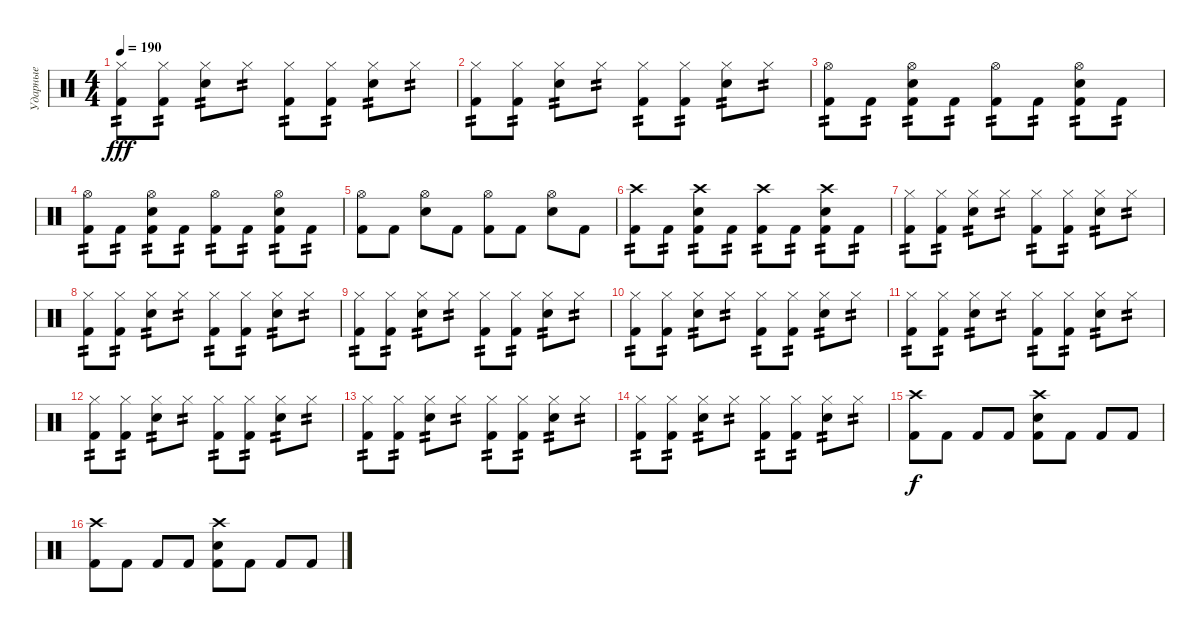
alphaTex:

\track ("Ударные" "Ударные") {instrument percussion}
\staff {score}
\articulation defaults
\ts (4 4)
\tempo 190
\clef neutral
\ks c
("Hi-Hat (closed)" "Kick (hit) 2").8{tp 2 dy fff} ("Hi-Hat (closed)" "Kick (hit) 2").8{tp 2} ("Hi-Hat (closed)" "Snare (hit) 2").8{tp 2} "Hi-Hat (closed)".8{tp 2} ("Hi-Hat (closed)" "Kick (hit) 2").8{tp 2} ("Hi-Hat (closed)" "Kick (hit) 2").8{tp 2} ("Hi-Hat (closed)" "Snare (hit) 2").8{tp 2} "Hi-Hat (closed)".8{tp 2} |
("Hi-Hat (closed)" "Kick (hit) 2").8{tp 2} ("Hi-Hat (closed)" "Kick (hit) 2").8{tp 2} ("Hi-Hat (closed)" "Snare (hit) 2").8{tp 2} "Hi-Hat (closed)".8{tp 2} ("Hi-Hat (closed)" "Kick (hit) 2").8{tp 2} ("Hi-Hat (closed)" "Kick (hit) 2").8{tp 2} ("Hi-Hat (closed)" "Snare (hit) 2").8{tp 2} "Hi-Hat (closed)".8{tp 2} |
("Hi-Hat (open)" "Kick (hit) 2").8{tp 2} "Kick (hit) 2".8{tp 2} ("Hi-Hat (open)" "Snare (hit) 2" "Kick (hit) 2").8{tp 2} "Kick (hit) 2".8{tp 2} ("Hi-Hat (open)" "Kick (hit) 2").8{tp 2} "Kick (hit) 2".8{tp 2} ("Hi-Hat (open)" "Snare (hit) 2" "Kick (hit) 2").8{tp 2} "Kick (hit) 2".8{tp 2} |
("Hi-Hat (open)" "Kick (hit) 2").8{tp 2} "Kick (hit) 2".8{tp 2} ("Hi-Hat (open)" "Snare (hit) 2" "Kick (hit) 2").8{tp 2} "Kick (hit) 2".8{tp 2} ("Hi-Hat (open)" "Kick (hit) 2").8{tp 2} "Kick (hit) 2".8{tp 2} ("Hi-Hat (open)" "Snare (hit) 2" "Kick (hit) 2").8{tp 2} "Kick (hit) 2".8{tp 2} |
("Hi-Hat (open)" "Kick (hit) 2").8 "Kick (hit) 2".8 ("Hi-Hat (open)" "Snare (hit) 2").8 "Kick (hit) 2".8 ("Hi-Hat (open)" "Kick (hit) 2").8 "Kick (hit) 2".8 ("Hi-Hat (open)" "Snare (hit) 2").8 "Kick (hit) 2".8 |
("Crash high (hit)" "Kick (hit) 2").8{tp 2} "Kick (hit) 2".8{tp 2} ("Crash high (hit)" "Snare (hit) 2" "Kick (hit) 2").8{tp 2} "Kick (hit) 2".8{tp 2} ("Crash high (hit)" "Kick (hit) 2").8{tp 2} "Kick (hit) 2".8{tp 2} ("Crash high (hit)" "Snare (hit) 2" "Kick (hit) 2").8{tp 2} "Kick (hit) 2".8{tp 2} |
("Hi-Hat (closed)" "Kick (hit) 2").8{tp 2} ("Hi-Hat (closed)" "Kick (hit) 2").8{tp 2} ("Hi-Hat (closed)" "Snare (hit) 2").8{tp 2} "Hi-Hat (closed)".8{tp 2} ("Hi-Hat (closed)" "Kick (hit) 2").8{tp 2} ("Hi-Hat (closed)" "Kick (hit) 2").8{tp 2} ("Hi-Hat (closed)" "Snare (hit) 2").8{tp 2} "Hi-Hat (closed)".8{tp 2} |
("Hi-Hat (closed)" "Kick (hit) 2").8{tp 2} ("Hi-Hat (closed)" "Kick (hit) 2").8{tp 2} ("Hi-Hat (closed)" "Snare (hit) 2").8{tp 2} "Hi-Hat (closed)".8{tp 2} ("Hi-Hat (closed)" "Kick (hit) 2").8{tp 2} ("Hi-Hat (closed)" "Kick (hit) 2").8{tp 2} ("Hi-Hat (closed)" "Snare (hit) 2").8{tp 2} "Hi-Hat (closed)".8{tp 2} |
("Hi-Hat (closed)" "Kick (hit) 2").8{tp 2} ("Hi-Hat (closed)" "Kick (hit) 2").8{tp 2} ("Hi-Hat (closed)" "Snare (hit) 2").8{tp 2} "Hi-Hat (closed)".8{tp 2} ("Hi-Hat (closed)" "Kick (hit) 2").8{tp 2} ("Hi-Hat (closed)" "Kick (hit) 2").8{tp 2} ("Hi-Hat (closed)" "Snare (hit) 2").8{tp 2} "Hi-Hat (closed)".8{tp 2} |
("Hi-Hat (closed)" "Kick (hit) 2").8{tp 2} ("Hi-Hat (closed)" "Kick (hit) 2").8{tp 2} ("Hi-Hat (closed)" "Snare (hit) 2").8{tp 2} "Hi-Hat (closed)".8{tp 2} ("Hi-Hat (closed)" "Kick (hit) 2").8{tp 2} ("Hi-Hat (closed)" "Kick (hit) 2").8{tp 2} ("Hi-Hat (closed)" "Snare (hit) 2").8{tp 2} "Hi-Hat (closed)".8{tp 2} |
("Hi-Hat (closed)" "Kick (hit) 2").8{tp 2} ("Hi-Hat (closed)" "Kick (hit) 2").8{tp 2} ("Hi-Hat (closed)" "Snare (hit) 2").8{tp 2} "Hi-Hat (closed)".8{tp 2} ("Hi-Hat (closed)" "Kick (hit) 2").8{tp 2} ("Hi-Hat (closed)" "Kick (hit) 2").8{tp 2} ("Hi-Hat (closed)" "Snare (hit) 2").8{tp 2} "Hi-Hat (closed)".8{tp 2} |
("Hi-Hat (closed)" "Kick (hit) 2").8{tp 2} ("Hi-Hat (closed)" "Kick (hit) 2").8{tp 2} ("Hi-Hat (closed)" "Snare (hit) 2").8{tp 2} "Hi-Hat (closed)".8{tp 2} ("Hi-Hat (closed)" "Kick (hit) 2").8{tp 2} ("Hi-Hat (closed)" "Kick (hit) 2").8{tp 2} ("Hi-Hat (closed)" "Snare (hit) 2").8{tp 2} "Hi-Hat (closed)".8{tp 2} |
("Hi-Hat (closed)" "Kick (hit) 2").8{tp 2} ("Hi-Hat (closed)" "Kick (hit) 2").8{tp 2} ("Hi-Hat (closed)" "Snare (hit) 2").8{tp 2} "Hi-Hat (closed)".8{tp 2} ("Hi-Hat (closed)" "Kick (hit) 2").8{tp 2} ("Hi-Hat (closed)" "Kick (hit) 2").8{tp 2} ("Hi-Hat (closed)" "Snare (hit) 2").8{tp 2} "Hi-Hat (closed)".8{tp 2} |
("Hi-Hat (closed)" "Kick (hit) 2").8{tp 2} ("Hi-Hat (closed)" "Kick (hit) 2").8{tp 2} ("Hi-Hat (closed)" "Snare (hit) 2").8{tp 2} "Hi-Hat (closed)".8{tp 2} ("Hi-Hat (closed)" "Kick (hit) 2").8{tp 2} ("Hi-Hat (closed)" "Kick (hit) 2").8{tp 2} ("Hi-Hat (closed)" "Snare (hit) 2").8{tp 2} "Hi-Hat (closed)".8{tp 2} |
("Crash high (hit)" "Kick (hit) 2").8{dy f} "Kick (hit) 2".8 "Kick (hit) 2".8 "Kick (hit) 2".8 ("Crash high (hit)" "Snare (hit) 2" "Kick (hit) 2").8 "Kick (hit) 2".8 "Kick (hit) 2".8 "Kick (hit) 2".8 |
("Crash high (hit)" "Kick (hit) 2").8 "Kick (hit) 2".8 "Kick (hit) 2".8 "Kick (hit) 2".8 ("Crash high (hit)" "Snare (hit) 2" "Kick (hit) 2").8 "Kick (hit) 2".8 "Kick (hit) 2".8 "Kick (hit) 2".8
